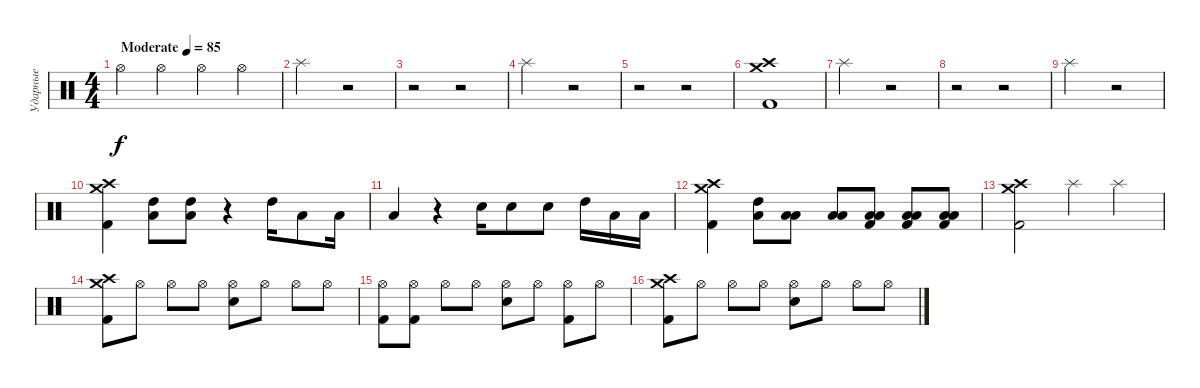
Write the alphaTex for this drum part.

\track ("Ударные" "Ударные") {instrument percussion}
\staff {score}
\articulation defaults
\ts (4 4)
\tempo (85 "Moderate")
\clef neutral
\ks c "Hi-Hat (open)".4{dy f} "Hi-Hat (open)".4 "Hi-Hat (open)".4 "Hi-Hat (open)".4
|
"Splash (hit)".2 r.2 |
r.2 r.2 |
"Splash (hit)".2 r.2 |
r.2 r.2 |
("Crash high (hit)" "Crash medium (hit)" "Kick (hit) 2").1 |
"Splash (hit)".2 r.2 |
r.2 r.2 |
"Splash (hit)".2 r.2 |
("Crash medium (hit)" "Crash high (hit)" "Kick (hit) 2").4 ("High Tom (hit)" "Low Floor Tom (hit)").8 ("High Tom (hit)" "Low Floor Tom (hit)").8 r.4 "High Tom (hit)".16 "Low Tom (hit)".8 "Low Floor Tom (hit)".16 |
"Low Floor Tom (hit)".4 r.4 "Electric Snare (hit)".16 "Electric Snare (hit)".8 "Electric Snare (hit)".8 "High Tom (hit)".16 "Low Tom (hit)".16 "Low Tom (hit)".16 |
("Crash medium (hit)" "Crash high (hit)" "Kick (hit) 2").4 ("High Tom (hit)" "Low Floor Tom (hit)").8 ("Low Tom (hit)" "Low Floor Tom (hit)").8 ("Low Tom (hit)" "Low Floor Tom (hit)").8 ("Low Tom (hit)" "Low Floor Tom (hit)" "Kick (hit) 2").8 ("Low Tom (hit)" "Low Floor Tom (hit)" "Kick (hit) 2").8 ("Low Tom (hit)" "Low Floor Tom (hit)" "Kick (hit) 2").8 |
("Crash high (hit)" "Crash medium (hit)" "Kick (hit) 2").2 "Splash (hit)".4 "Splash (hit)".4 |
("Crash high (hit)" "Crash medium (hit)" "Kick (hit) 2").8 "Hi-Hat (open)".8 "Hi-Hat (open)".8 "Hi-Hat (open)".8 ("Hi-Hat (open)" "Electric Snare (hit)").8 "Hi-Hat (open)".8 "Hi-Hat (open)".8 "Hi-Hat (open)".8 |
("Hi-Hat (open)" "Kick (hit) 2").8 ("Hi-Hat (open)" "Kick (hit) 2").8 "Hi-Hat (open)".8 "Hi-Hat (open)".8 ("Hi-Hat (open)" "Electric Snare (hit)").8 "Hi-Hat (open)".8 ("Hi-Hat (open)" "Kick (hit) 2").8 "Hi-Hat (open)".8 |
("Crash high (hit)" "Crash medium (hit)" "Kick (hit) 2").8 "Hi-Hat (open)".8 "Hi-Hat (open)".8 "Hi-Hat (open)".8 ("Hi-Hat (open)" "Electric Snare (hit)").8 "Hi-Hat (open)".8 "Hi-Hat (open)".8 "Hi-Hat (open)".8
